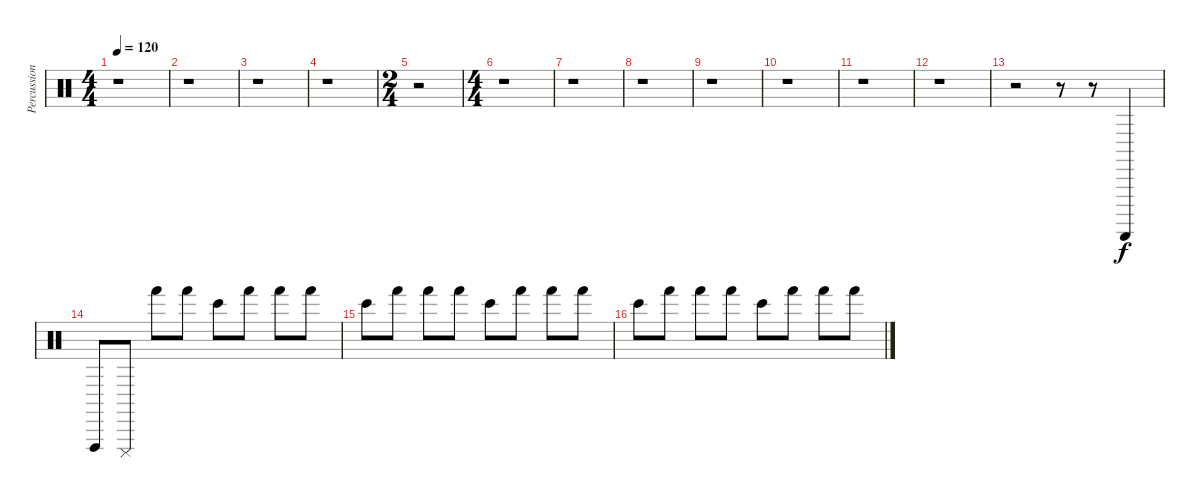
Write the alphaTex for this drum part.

\track ("Percussion" "Percussion") {instrument percussion}
\staff {score}
\articulation defaults
\ts (4 4)
\tempo 120
\clef neutral
\ks c
r.1{dy f} |
r.1 |
r.1 |
r.1 |
\ts (2 4)
r.2 |
\ts (4 4)
r.1 |
r.1 |
r.1 |
r.1 |
r.1 |
r.1 |
r.1 |
r.2 r.8 r.8 "Guiro (scrap-return)".4 |
"Vibraslap (hit)".8 "Cuica (mute)".8 "Hand (hit)".8 "Hand (hit)".8 "Bongo High (hit)".8 "Hand (hit)".8 "Hand (hit)".8 "Hand (hit)".8 |
"Bongo High (hit)".8 "Hand (hit)".8 "Hand (hit)".8 "Hand (hit)".8 "Bongo High (hit)".8 "Hand (hit)".8 "Hand (hit)".8 "Hand (hit)".8 |
"Bongo High (hit)".8 "Hand (hit)".8 "Hand (hit)".8 "Hand (hit)".8 "Bongo High (hit)".8 "Hand (hit)".8 "Hand (hit)".8 "Hand (hit)".8
